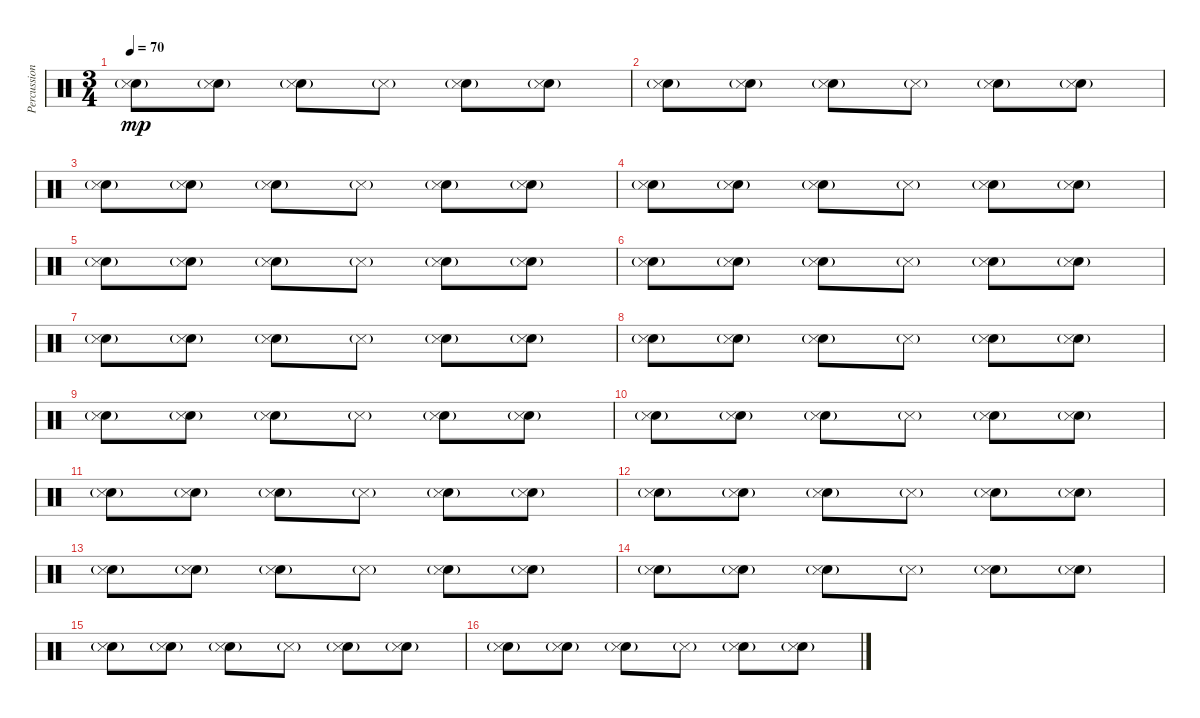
\track ("Percussion" "Percussion") {instrument percussion}
\staff {score}
\articulation defaults
\ts (3 4)
\tempo 70
\clef neutral
\ks c
("Snare (hit) 2"{g} "Snare (side stick) 3"{g}).8{dy mp} ("Snare (hit) 2"{g} "Snare (side stick) 3"{g}).8 ("Snare (hit) 2"{g} "Snare (side stick) 3"{g}).8 "Snare (side stick) 3"{g}.8 ("Snare (hit) 2"{g} "Snare (side stick) 3"{g}).8 ("Snare (hit) 2"{g} "Snare (side stick) 3"{g}).8 |
("Snare (hit) 2"{g} "Snare (side stick) 3"{g}).8 ("Snare (hit) 2"{g} "Snare (side stick) 3"{g}).8 ("Snare (hit) 2"{g} "Snare (side stick) 3"{g}).8 "Snare (side stick) 3"{g}.8 ("Snare (hit) 2"{g} "Snare (side stick) 3"{g}).8 ("Snare (hit) 2"{g} "Snare (side stick) 3"{g}).8 |
("Snare (hit) 2"{g} "Snare (side stick) 3"{g}).8 ("Snare (hit) 2"{g} "Snare (side stick) 3"{g}).8 ("Snare (hit) 2"{g} "Snare (side stick) 3"{g}).8 "Snare (side stick) 3"{g}.8 ("Snare (hit) 2"{g} "Snare (side stick) 3"{g}).8 ("Snare (hit) 2"{g} "Snare (side stick) 3"{g}).8 |
("Snare (hit) 2"{g} "Snare (side stick) 3"{g}).8 ("Snare (hit) 2"{g} "Snare (side stick) 3"{g}).8 ("Snare (hit) 2"{g} "Snare (side stick) 3"{g}).8 "Snare (side stick) 3"{g}.8 ("Snare (hit) 2"{g} "Snare (side stick) 3"{g}).8 ("Snare (hit) 2"{g} "Snare (side stick) 3"{g}).8 |
("Snare (hit) 2"{g} "Snare (side stick) 3"{g}).8 ("Snare (hit) 2"{g} "Snare (side stick) 3"{g}).8 ("Snare (hit) 2"{g} "Snare (side stick) 3"{g}).8 "Snare (side stick) 3"{g}.8 ("Snare (hit) 2"{g} "Snare (side stick) 3"{g}).8 ("Snare (hit) 2"{g} "Snare (side stick) 3"{g}).8 |
("Snare (hit) 2"{g} "Snare (side stick) 3"{g}).8 ("Snare (hit) 2"{g} "Snare (side stick) 3"{g}).8 ("Snare (hit) 2"{g} "Snare (side stick) 3"{g}).8 "Snare (side stick) 3"{g}.8 ("Snare (hit) 2"{g} "Snare (side stick) 3"{g}).8 ("Snare (hit) 2"{g} "Snare (side stick) 3"{g}).8 |
("Snare (hit) 2"{g} "Snare (side stick) 3"{g}).8 ("Snare (hit) 2"{g} "Snare (side stick) 3"{g}).8 ("Snare (hit) 2"{g} "Snare (side stick) 3"{g}).8 "Snare (side stick) 3"{g}.8 ("Snare (hit) 2"{g} "Snare (side stick) 3"{g}).8 ("Snare (hit) 2"{g} "Snare (side stick) 3"{g}).8 |
("Snare (hit) 2"{g} "Snare (side stick) 3"{g}).8 ("Snare (hit) 2"{g} "Snare (side stick) 3"{g}).8 ("Snare (hit) 2"{g} "Snare (side stick) 3"{g}).8 "Snare (side stick) 3"{g}.8 ("Snare (hit) 2"{g} "Snare (side stick) 3"{g}).8 ("Snare (hit) 2"{g} "Snare (side stick) 3"{g}).8 |
("Snare (hit) 2"{g} "Snare (side stick) 3"{g}).8 ("Snare (hit) 2"{g} "Snare (side stick) 3"{g}).8 ("Snare (hit) 2"{g} "Snare (side stick) 3"{g}).8 "Snare (side stick) 3"{g}.8 ("Snare (hit) 2"{g} "Snare (side stick) 3"{g}).8 ("Snare (hit) 2"{g} "Snare (side stick) 3"{g}).8 |
("Snare (hit) 2"{g} "Snare (side stick) 3"{g}).8 ("Snare (hit) 2"{g} "Snare (side stick) 3"{g}).8 ("Snare (hit) 2"{g} "Snare (side stick) 3"{g}).8 "Snare (side stick) 3"{g}.8 ("Snare (hit) 2"{g} "Snare (side stick) 3"{g}).8 ("Snare (hit) 2"{g} "Snare (side stick) 3"{g}).8 |
("Snare (hit) 2"{g} "Snare (side stick) 3"{g}).8 ("Snare (hit) 2"{g} "Snare (side stick) 3"{g}).8 ("Snare (hit) 2"{g} "Snare (side stick) 3"{g}).8 "Snare (side stick) 3"{g}.8 ("Snare (hit) 2"{g} "Snare (side stick) 3"{g}).8 ("Snare (hit) 2"{g} "Snare (side stick) 3"{g}).8 |
("Snare (hit) 2"{g} "Snare (side stick) 3"{g}).8 ("Snare (hit) 2"{g} "Snare (side stick) 3"{g}).8 ("Snare (hit) 2"{g} "Snare (side stick) 3"{g}).8 "Snare (side stick) 3"{g}.8 ("Snare (hit) 2"{g} "Snare (side stick) 3"{g}).8 ("Snare (hit) 2"{g} "Snare (side stick) 3"{g}).8 |
("Snare (hit) 2"{g} "Snare (side stick) 3"{g}).8 ("Snare (hit) 2"{g} "Snare (side stick) 3"{g}).8 ("Snare (hit) 2"{g} "Snare (side stick) 3"{g}).8 "Snare (side stick) 3"{g}.8 ("Snare (hit) 2"{g} "Snare (side stick) 3"{g}).8 ("Snare (hit) 2"{g} "Snare (side stick) 3"{g}).8 |
("Snare (hit) 2"{g} "Snare (side stick) 3"{g}).8 ("Snare (hit) 2"{g} "Snare (side stick) 3"{g}).8 ("Snare (hit) 2"{g} "Snare (side stick) 3"{g}).8 "Snare (side stick) 3"{g}.8 ("Snare (hit) 2"{g} "Snare (side stick) 3"{g}).8 ("Snare (hit) 2"{g} "Snare (side stick) 3"{g}).8 |
("Snare (hit) 2"{g} "Snare (side stick) 3"{g}).8 ("Snare (hit) 2"{g} "Snare (side stick) 3"{g}).8 ("Snare (hit) 2"{g} "Snare (side stick) 3"{g}).8 "Snare (side stick) 3"{g}.8 ("Snare (hit) 2"{g} "Snare (side stick) 3"{g}).8 ("Snare (hit) 2"{g} "Snare (side stick) 3"{g}).8 |
("Snare (hit) 2"{g} "Snare (side stick) 3"{g}).8 ("Snare (hit) 2"{g} "Snare (side stick) 3"{g}).8 ("Snare (hit) 2"{g} "Snare (side stick) 3"{g}).8 "Snare (side stick) 3"{g}.8 ("Snare (hit) 2"{g} "Snare (side stick) 3"{g}).8 ("Snare (hit) 2"{g} "Snare (side stick) 3"{g}).8
